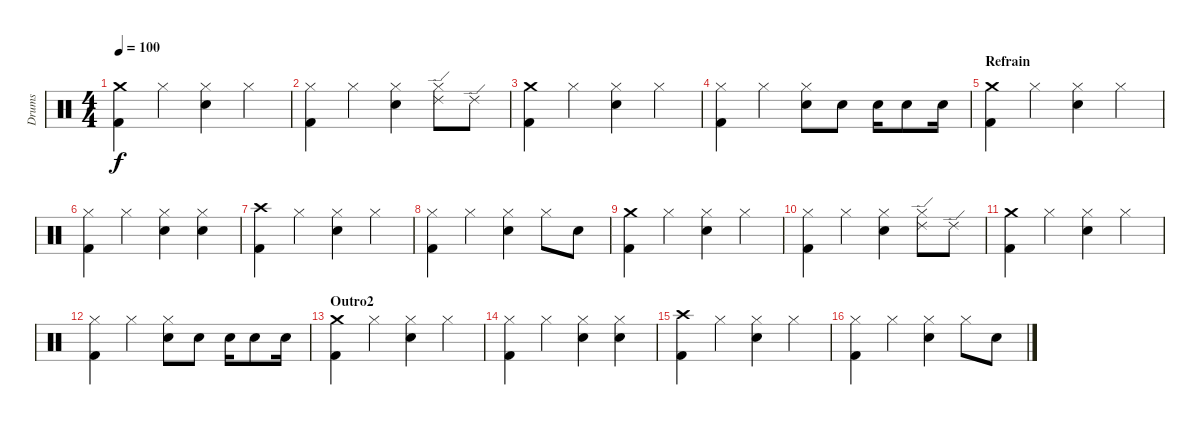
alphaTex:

\track ("Drums" "Drums") {instrument percussion}
\staff {score}
\articulation defaults
\ts (4 4)
\tempo 100
\clef neutral
\ks c
("Crash medium (hit)" "Kick (hit) 2").4{dy f} "Hi-Hat (closed)".4 ("Hi-Hat (closed)" "Snare (hit) 2").4 "Hi-Hat (closed)".4 |
("Hi-Hat (closed)" "Kick (hit) 2").4 "Hi-Hat (closed)".4 ("Hi-Hat (closed)" "Snare (hit) 2").4 ("Hi-Hat (closed)" "Ride (edge) 2").8 "Ride (edge) 2".8 |
("Crash medium (hit)" "Kick (hit) 2").4 "Hi-Hat (closed)".4 ("Hi-Hat (closed)" "Snare (hit) 2").4 "Hi-Hat (closed)".4 |
("Hi-Hat (closed)" "Kick (hit) 2").4 "Hi-Hat (closed)".4 ("Hi-Hat (closed)" "Snare (hit) 2").8 "Snare (hit) 2".8 "Snare (hit) 2".16 "Snare (hit) 2".8 "Snare (hit) 2".16 |
\section ("" "Refrain")
("Crash medium (hit)" "Kick (hit) 2").4 "Hi-Hat (closed)".4 ("Hi-Hat (closed)" "Snare (hit) 2").4 "Hi-Hat (closed)".4 |
("Hi-Hat (closed)" "Kick (hit) 2").4 "Hi-Hat (closed)".4 ("Hi-Hat (closed)" "Snare (hit) 2").4 ("Hi-Hat (closed)" "Snare (hit) 2").4 |
("Crash high (hit)" "Kick (hit) 2").4 "Hi-Hat (closed)".4 ("Hi-Hat (closed)" "Snare (hit) 2").4 "Hi-Hat (closed)".4 |
("Hi-Hat (closed)" "Kick (hit) 2").4 "Hi-Hat (closed)".4 ("Hi-Hat (closed)" "Snare (hit) 2").4 "Hi-Hat (closed)".8 "Snare (hit) 2".8 |
("Crash medium (hit)" "Kick (hit) 2").4 "Hi-Hat (closed)".4 ("Hi-Hat (closed)" "Snare (hit) 2").4 "Hi-Hat (closed)".4 |
("Hi-Hat (closed)" "Kick (hit) 2").4 "Hi-Hat (closed)".4 ("Hi-Hat (closed)" "Snare (hit) 2").4 ("Hi-Hat (closed)" "Ride (edge) 2").8 "Ride (edge) 2".8 |
("Crash medium (hit)" "Kick (hit) 2").4 "Hi-Hat (closed)".4 ("Hi-Hat (closed)" "Snare (hit) 2").4 "Hi-Hat (closed)".4 |
("Hi-Hat (closed)" "Kick (hit) 2").4 "Hi-Hat (closed)".4 ("Hi-Hat (closed)" "Snare (hit) 2").8 "Snare (hit) 2".8 "Snare (hit) 2".16 "Snare (hit) 2".8 "Snare (hit) 2".16 |
\section ("" "Outro2")
("Crash medium (hit)" "Kick (hit) 2").4 "Hi-Hat (closed)".4 ("Hi-Hat (closed)" "Snare (hit) 2").4 "Hi-Hat (closed)".4 |
("Hi-Hat (closed)" "Kick (hit) 2").4 "Hi-Hat (closed)".4 ("Hi-Hat (closed)" "Snare (hit) 2").4 ("Hi-Hat (closed)" "Snare (hit) 2").4 |
("Crash high (hit)" "Kick (hit) 2").4 "Hi-Hat (closed)".4 ("Hi-Hat (closed)" "Snare (hit) 2").4 "Hi-Hat (closed)".4 |
("Hi-Hat (closed)" "Kick (hit) 2").4{volume 0} "Hi-Hat (closed)".4 ("Hi-Hat (closed)" "Snare (hit) 2").4 "Hi-Hat (closed)".8 "Snare (hit) 2".8
